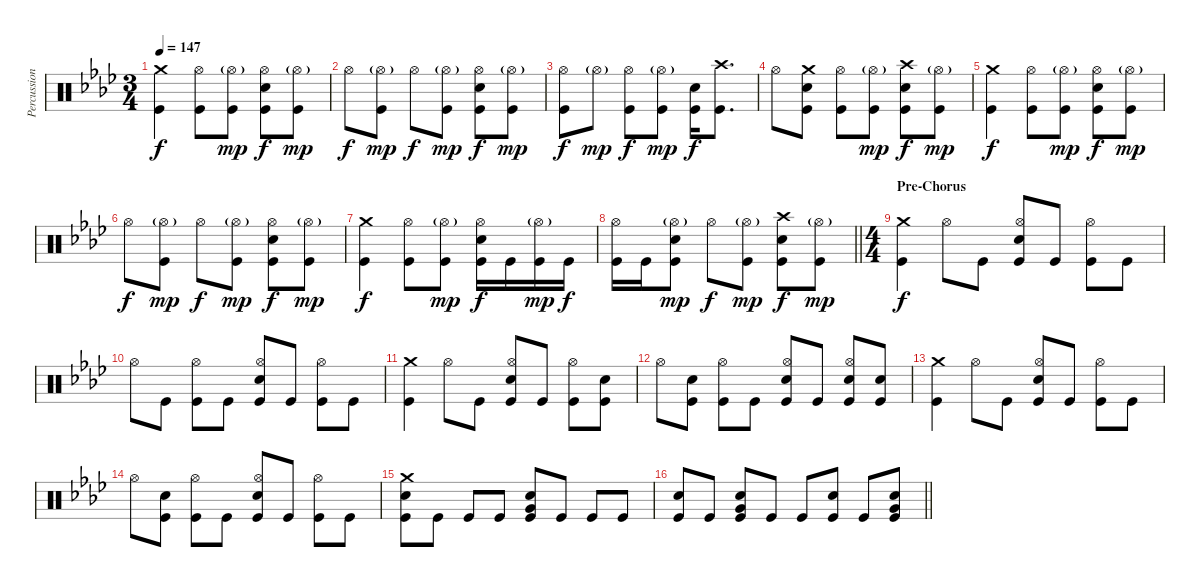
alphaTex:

\track ("Percussion" "Percussion") {instrument percussion}
\staff {score}
\articulation defaults
\ts (3 4)
\tempo 147
\clef neutral
\ks ab
("Crash medium (hit)" "Kick (hit)").4{dy f} ("Hi-Hat (open)" "Kick (hit)").8 ("Hi-Hat (open)"{g} "Kick (hit)").8{dy mp} ("Hi-Hat (open)" "Electric Snare (hit)" "Kick (hit)").8{dy f} ("Hi-Hat (open)"{g} "Kick (hit)").8{dy mp} |
"Hi-Hat (open)".8{dy f} ("Hi-Hat (open)"{g} "Kick (hit)").8{dy mp} "Hi-Hat (open)".8{dy f} ("Hi-Hat (open)"{g} "Kick (hit)").8{dy mp} ("Hi-Hat (open)" "Electric Snare (hit)" "Kick (hit)").8{dy f} ("Hi-Hat (open)"{g} "Kick (hit)").8{dy mp} |
("Hi-Hat (open)" "Kick (hit)").8{dy f} "Hi-Hat (open)"{g}.8{dy mp} ("Hi-Hat (open)" "Kick (hit)").8{dy f} ("Hi-Hat (open)"{g} "Kick (hit)").8{dy mp} ("Electric Snare (hit)" "Kick (hit)").16{dy f} ("Crash high (hit)" "Kick (hit)").8{d} |
"Hi-Hat (open)".8 ("Crash medium (hit)" "Electric Snare (hit)" "Kick (hit)").8 ("Hi-Hat (open)" "Kick (hit)").8 ("Hi-Hat (open)"{g} "Kick (hit)").8{dy mp} ("Crash high (hit)" "Electric Snare (hit)" "Kick (hit)").8{dy f} ("Hi-Hat (open)"{g} "Kick (hit)").8{dy mp} |
("Crash medium (hit)" "Kick (hit)").4{dy f} ("Hi-Hat (open)" "Kick (hit)").8 ("Hi-Hat (open)"{g} "Kick (hit)").8{dy mp} ("Hi-Hat (open)" "Electric Snare (hit)" "Kick (hit)").8{dy f} ("Hi-Hat (open)"{g} "Kick (hit)").8{dy mp} |
"Hi-Hat (open)".8{dy f} ("Hi-Hat (open)"{g} "Kick (hit)").8{dy mp} "Hi-Hat (open)".8{dy f} ("Hi-Hat (open)"{g} "Kick (hit)").8{dy mp} ("Hi-Hat (open)" "Electric Snare (hit)" "Kick (hit)").8{dy f} ("Hi-Hat (open)"{g} "Kick (hit)").8{dy mp} |
("Crash medium (hit)" "Kick (hit)").4{dy f} ("Hi-Hat (open)" "Kick (hit)").8 ("Hi-Hat (open)"{g} "Kick (hit)").8{dy mp} ("Hi-Hat (open)" "Electric Snare (hit)" "Kick (hit)").16{dy f} "Kick (hit)".16 ("Hi-Hat (open)"{g} "Kick (hit)").16{dy mp} "Kick (hit)".16{dy f} |
\barLineRight lightlight
("Hi-Hat (open)" "Kick (hit)").16 "Kick (hit)".16 ("Hi-Hat (open)"{g} "Electric Snare (hit)" "Kick (hit)").8{dy mp} "Hi-Hat (open)".8{dy f} ("Hi-Hat (open)"{g} "Kick (hit)").8{dy mp} ("Crash high (hit)" "Electric Snare (hit)" "Kick (hit)").8{dy f} ("Hi-Hat (open)"{g} "Kick (hit)").8{dy mp} |
\ts (4 4)
\section ("" "Pre-Chorus")
("Crash medium (hit)" "Kick (hit)").4{dy f} "Hi-Hat (open)".8 "Kick (hit)".8 ("Hi-Hat (open)" "Electric Snare (hit)" "Kick (hit)").8 "Kick (hit)".8 ("Hi-Hat (open)" "Kick (hit)").8 "Kick (hit)".8 |
"Hi-Hat (open)".8 "Kick (hit)".8 ("Hi-Hat (open)" "Kick (hit)").8 "Kick (hit)".8 ("Hi-Hat (open)" "Electric Snare (hit)" "Kick (hit)").8 "Kick (hit)".8 ("Hi-Hat (open)" "Kick (hit)").8 "Kick (hit)".8 |
("Crash medium (hit)" "Kick (hit)").4 "Hi-Hat (open)".8 "Kick (hit)".8 ("Hi-Hat (open)" "Electric Snare (hit)" "Kick (hit)").8 "Kick (hit)".8 ("Hi-Hat (open)" "Kick (hit)").8 ("Electric Snare (hit)" "Kick (hit)").8 |
"Hi-Hat (open)".8 ("Electric Snare (hit)" "Kick (hit)").8 ("Hi-Hat (open)" "Kick (hit)").8 "Kick (hit)".8 ("Hi-Hat (open)" "Electric Snare (hit)" "Kick (hit)").8 "Kick (hit)".8 ("Hi-Hat (open)" "Electric Snare (hit)" "Kick (hit)").8 ("Electric Snare (hit)" "Kick (hit)").8 |
("Crash medium (hit)" "Kick (hit)").4 "Hi-Hat (open)".8 "Kick (hit)".8 ("Hi-Hat (open)" "Electric Snare (hit)" "Kick (hit)").8 "Kick (hit)".8 ("Hi-Hat (open)" "Kick (hit)").8 "Kick (hit)".8 |
"Hi-Hat (open)".8 ("Electric Snare (hit)" "Kick (hit)").8 ("Hi-Hat (open)" "Kick (hit)").8 "Kick (hit)".8 ("Hi-Hat (open)" "Electric Snare (hit)" "Kick (hit)").8 "Kick (hit)".8 ("Hi-Hat (open)" "Kick (hit)").8 "Kick (hit)".8 |
("Crash medium (hit)" "Electric Snare (hit)" "Kick (hit)").8 "Kick (hit)".8 "Kick (hit)".8 "Kick (hit)".8 ("Very Low Tom (hit)" "Electric Snare (hit)" "Kick (hit)").8 "Kick (hit)".8 "Kick (hit)".8 "Kick (hit)".8 |
\barLineRight lightlight
("Electric Snare (hit)" "Kick (hit)").8 "Kick (hit)".8 ("Very Low Tom (hit)" "Electric Snare (hit)" "Kick (hit)").8 "Kick (hit)".8 "Kick (hit)".8 ("Electric Snare (hit)" "Kick (hit)").8 "Kick (hit)".8 ("Very Low Tom (hit)" "Electric Snare (hit)" "Kick (hit)").8
